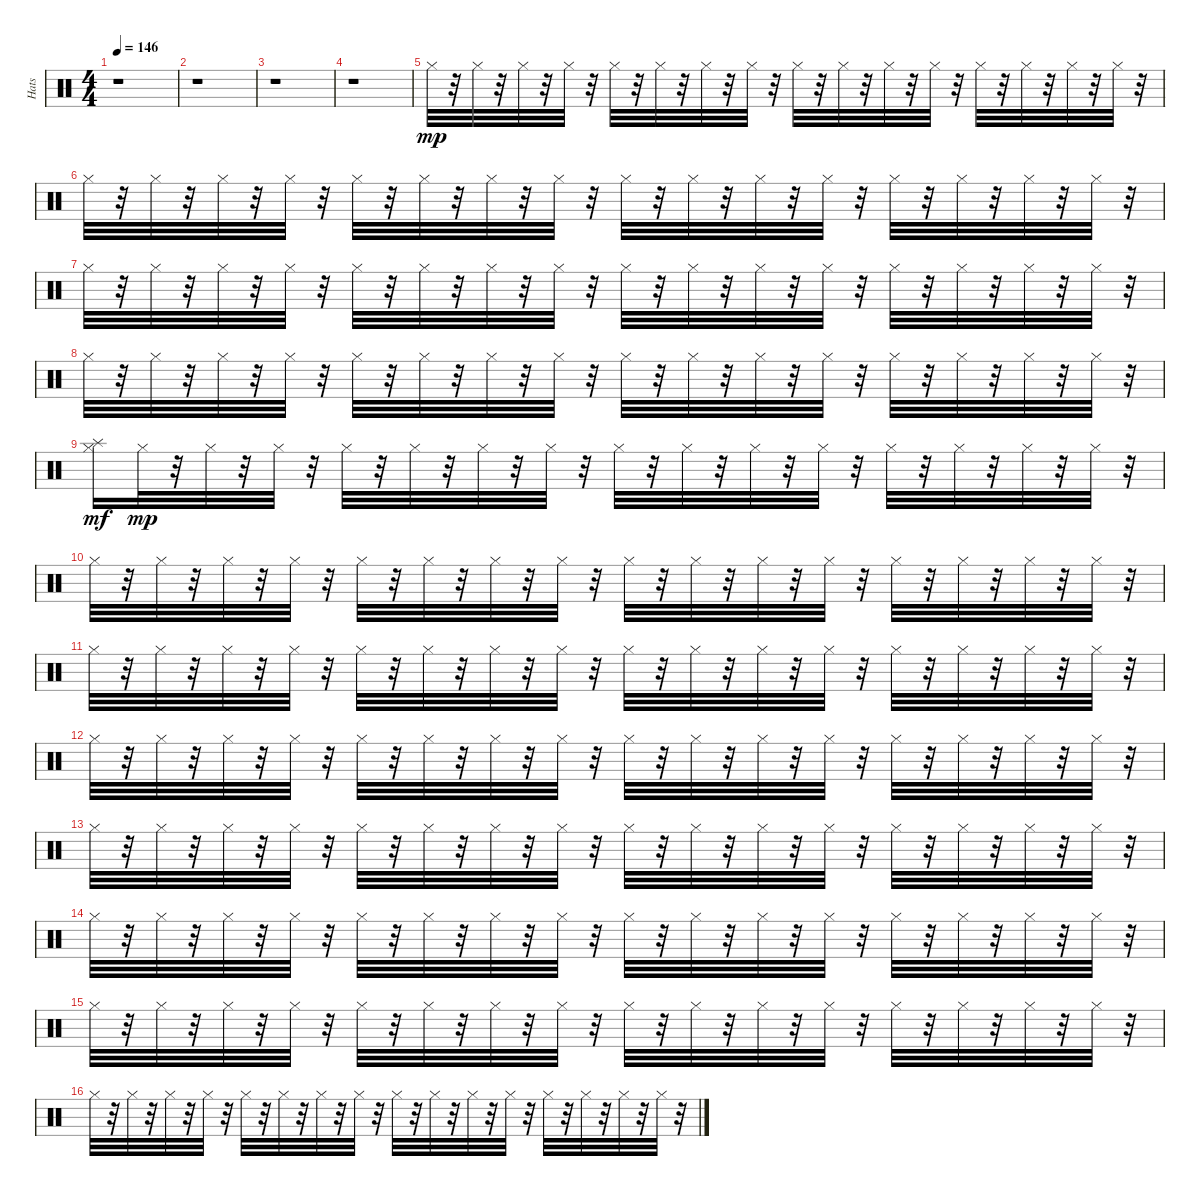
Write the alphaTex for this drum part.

\track ("Hats" "Hats") {instrument percussion}
\staff {score}
\articulation defaults
\ts (4 4)
\tempo 146
\clef neutral
\ks c
r.1{dy mp} |
r.1 |
r.1 |
r.1 |
"Hi-Hat (closed)".32 r.32 "Hi-Hat (closed)".32 r.32 "Hi-Hat (closed)".32 r.32 "Hi-Hat (closed)".32 r.32 "Hi-Hat (closed)".32 r.32 "Hi-Hat (closed)".32 r.32 "Hi-Hat (closed)".32 r.32 "Hi-Hat (closed)".32 r.32 "Hi-Hat (closed)".32 r.32 "Hi-Hat (closed)".32 r.32 "Hi-Hat (closed)".32 r.32 "Hi-Hat (closed)".32 r.32 "Hi-Hat (closed)".32 r.32 "Hi-Hat (closed)".32 r.32 "Hi-Hat (closed)".32 r.32 "Hi-Hat (closed)".32 r.32 |
"Hi-Hat (closed)".32 r.32 "Hi-Hat (closed)".32 r.32 "Hi-Hat (closed)".32 r.32 "Hi-Hat (closed)".32 r.32 "Hi-Hat (closed)".32 r.32 "Hi-Hat (closed)".32 r.32 "Hi-Hat (closed)".32 r.32 "Hi-Hat (closed)".32 r.32 "Hi-Hat (closed)".32 r.32 "Hi-Hat (closed)".32 r.32 "Hi-Hat (closed)".32 r.32 "Hi-Hat (closed)".32 r.32 "Hi-Hat (closed)".32 r.32 "Hi-Hat (closed)".32 r.32 "Hi-Hat (closed)".32 r.32 "Hi-Hat (closed)".32 r.32 |
"Hi-Hat (closed)".32 r.32 "Hi-Hat (closed)".32 r.32 "Hi-Hat (closed)".32 r.32 "Hi-Hat (closed)".32 r.32 "Hi-Hat (closed)".32 r.32 "Hi-Hat (closed)".32 r.32 "Hi-Hat (closed)".32 r.32 "Hi-Hat (closed)".32 r.32 "Hi-Hat (closed)".32 r.32 "Hi-Hat (closed)".32 r.32 "Hi-Hat (closed)".32 r.32 "Hi-Hat (closed)".32 r.32 "Hi-Hat (closed)".32 r.32 "Hi-Hat (closed)".32 r.32 "Hi-Hat (closed)".32 r.32 "Hi-Hat (closed)".32 r.32 |
"Hi-Hat (closed)".32 r.32 "Hi-Hat (closed)".32 r.32 "Hi-Hat (closed)".32 r.32 "Hi-Hat (closed)".32 r.32 "Hi-Hat (closed)".32 r.32 "Hi-Hat (closed)".32 r.32 "Hi-Hat (closed)".32 r.32 "Hi-Hat (closed)".32 r.32 "Hi-Hat (closed)".32 r.32 "Hi-Hat (closed)".32 r.32 "Hi-Hat (closed)".32 r.32 "Hi-Hat (closed)".32 r.32 "Hi-Hat (closed)".32 r.32 "Hi-Hat (closed)".32 r.32 "Hi-Hat (closed)".32 r.32 "Hi-Hat (closed)".32 r.32 |
("Hi-Hat (closed)" "Splash (hit)").16{dy mf} "Hi-Hat (closed)".32{dy mp} r.32 "Hi-Hat (closed)".32 r.32 "Hi-Hat (closed)".32 r.32 "Hi-Hat (closed)".32 r.32 "Hi-Hat (closed)".32 r.32 "Hi-Hat (closed)".32 r.32 "Hi-Hat (closed)".32 r.32 "Hi-Hat (closed)".32 r.32 "Hi-Hat (closed)".32 r.32 "Hi-Hat (closed)".32 r.32 "Hi-Hat (closed)".32 r.32 "Hi-Hat (closed)".32 r.32 "Hi-Hat (closed)".32 r.32 "Hi-Hat (closed)".32 r.32 "Hi-Hat (closed)".32 r.32 |
"Hi-Hat (closed)".32 r.32 "Hi-Hat (closed)".32 r.32 "Hi-Hat (closed)".32 r.32 "Hi-Hat (closed)".32 r.32 "Hi-Hat (closed)".32 r.32 "Hi-Hat (closed)".32 r.32 "Hi-Hat (closed)".32 r.32 "Hi-Hat (closed)".32 r.32 "Hi-Hat (closed)".32 r.32 "Hi-Hat (closed)".32 r.32 "Hi-Hat (closed)".32 r.32 "Hi-Hat (closed)".32 r.32 "Hi-Hat (closed)".32 r.32 "Hi-Hat (closed)".32 r.32 "Hi-Hat (closed)".32 r.32 "Hi-Hat (closed)".32 r.32 |
"Hi-Hat (closed)".32 r.32 "Hi-Hat (closed)".32 r.32 "Hi-Hat (closed)".32 r.32 "Hi-Hat (closed)".32 r.32 "Hi-Hat (closed)".32 r.32 "Hi-Hat (closed)".32 r.32 "Hi-Hat (closed)".32 r.32 "Hi-Hat (closed)".32 r.32 "Hi-Hat (closed)".32 r.32 "Hi-Hat (closed)".32 r.32 "Hi-Hat (closed)".32 r.32 "Hi-Hat (closed)".32 r.32 "Hi-Hat (closed)".32 r.32 "Hi-Hat (closed)".32 r.32 "Hi-Hat (closed)".32 r.32 "Hi-Hat (closed)".32 r.32 |
"Hi-Hat (closed)".32 r.32 "Hi-Hat (closed)".32 r.32 "Hi-Hat (closed)".32 r.32 "Hi-Hat (closed)".32 r.32 "Hi-Hat (closed)".32 r.32 "Hi-Hat (closed)".32 r.32 "Hi-Hat (closed)".32 r.32 "Hi-Hat (closed)".32 r.32 "Hi-Hat (closed)".32 r.32 "Hi-Hat (closed)".32 r.32 "Hi-Hat (closed)".32 r.32 "Hi-Hat (closed)".32 r.32 "Hi-Hat (closed)".32 r.32 "Hi-Hat (closed)".32 r.32 "Hi-Hat (closed)".32 r.32 "Hi-Hat (closed)".32 r.32 |
"Hi-Hat (closed)".32 r.32 "Hi-Hat (closed)".32 r.32 "Hi-Hat (closed)".32 r.32 "Hi-Hat (closed)".32 r.32 "Hi-Hat (closed)".32 r.32 "Hi-Hat (closed)".32 r.32 "Hi-Hat (closed)".32 r.32 "Hi-Hat (closed)".32 r.32 "Hi-Hat (closed)".32 r.32 "Hi-Hat (closed)".32 r.32 "Hi-Hat (closed)".32 r.32 "Hi-Hat (closed)".32 r.32 "Hi-Hat (closed)".32 r.32 "Hi-Hat (closed)".32 r.32 "Hi-Hat (closed)".32 r.32 "Hi-Hat (closed)".32 r.32 |
"Hi-Hat (closed)".32 r.32 "Hi-Hat (closed)".32 r.32 "Hi-Hat (closed)".32 r.32 "Hi-Hat (closed)".32 r.32 "Hi-Hat (closed)".32 r.32 "Hi-Hat (closed)".32 r.32 "Hi-Hat (closed)".32 r.32 "Hi-Hat (closed)".32 r.32 "Hi-Hat (closed)".32 r.32 "Hi-Hat (closed)".32 r.32 "Hi-Hat (closed)".32 r.32 "Hi-Hat (closed)".32 r.32 "Hi-Hat (closed)".32 r.32 "Hi-Hat (closed)".32 r.32 "Hi-Hat (closed)".32 r.32 "Hi-Hat (closed)".32 r.32 |
"Hi-Hat (closed)".32 r.32 "Hi-Hat (closed)".32 r.32 "Hi-Hat (closed)".32 r.32 "Hi-Hat (closed)".32 r.32 "Hi-Hat (closed)".32 r.32 "Hi-Hat (closed)".32 r.32 "Hi-Hat (closed)".32 r.32 "Hi-Hat (closed)".32 r.32 "Hi-Hat (closed)".32 r.32 "Hi-Hat (closed)".32 r.32 "Hi-Hat (closed)".32 r.32 "Hi-Hat (closed)".32 r.32 "Hi-Hat (closed)".32 r.32 "Hi-Hat (closed)".32 r.32 "Hi-Hat (closed)".32 r.32 "Hi-Hat (closed)".32 r.32 |
"Hi-Hat (closed)".32 r.32 "Hi-Hat (closed)".32 r.32 "Hi-Hat (closed)".32 r.32 "Hi-Hat (closed)".32 r.32 "Hi-Hat (closed)".32 r.32 "Hi-Hat (closed)".32 r.32 "Hi-Hat (closed)".32 r.32 "Hi-Hat (closed)".32 r.32 "Hi-Hat (closed)".32 r.32 "Hi-Hat (closed)".32 r.32 "Hi-Hat (closed)".32 r.32 "Hi-Hat (closed)".32 r.32 "Hi-Hat (closed)".32 r.32 "Hi-Hat (closed)".32 r.32 "Hi-Hat (closed)".32 r.32 "Hi-Hat (closed)".32 r.32
